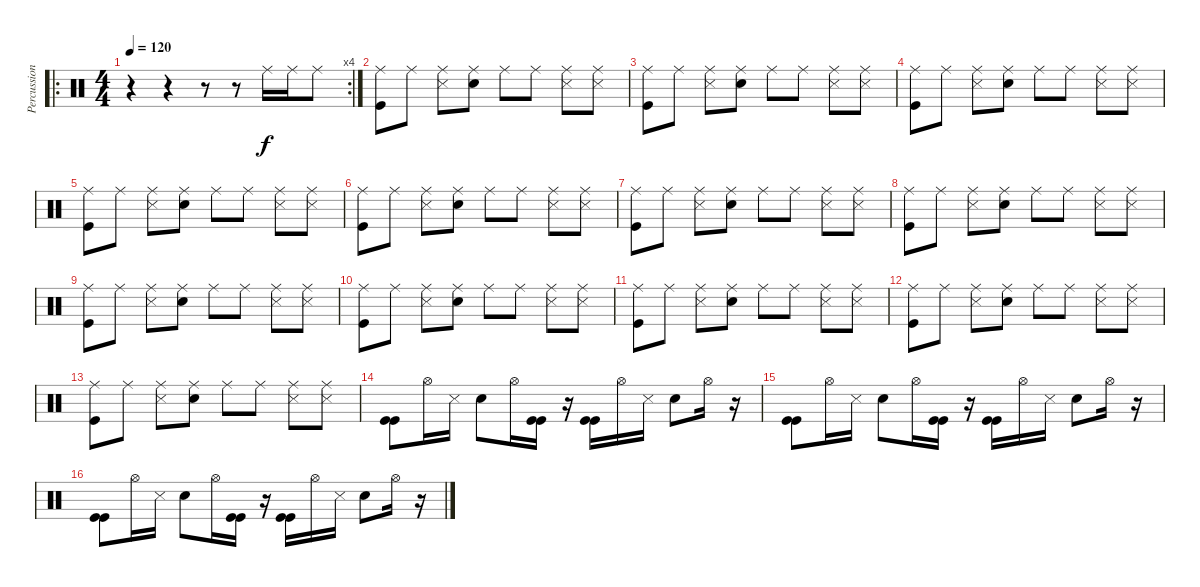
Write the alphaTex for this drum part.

\track ("Percussions" "Percussion") {instrument percussion}
\staff {score}
\articulation defaults
\ro
\rc 4
\ts (4 4)
\tempo 120
\clef neutral
\ks c
r.4{dy f} r.4 r.8 r.8 "Ride (middle)".16 "Ride (middle)".16 "Ride (middle)".8 |
("Ride (middle)" "Kick (hit)").8 "Ride (middle)".8 ("Ride (middle)" "Snare (side stick) 3").8 ("Ride (middle)" "Electric Snare (hit)").8 "Ride (middle)".8 "Ride (middle)".8 ("Ride (middle)" "Snare (side stick) 3").8 ("Ride (middle)" "Snare (side stick) 3").8 |
("Ride (middle)" "Kick (hit)").8 "Ride (middle)".8 ("Ride (middle)" "Snare (side stick) 3").8 ("Ride (middle)" "Electric Snare (hit)").8 "Ride (middle)".8 "Ride (middle)".8 ("Ride (middle)" "Snare (side stick) 3").8 ("Ride (middle)" "Snare (side stick) 3").8 |
("Ride (middle)" "Kick (hit)").8 "Ride (middle)".8 ("Ride (middle)" "Snare (side stick) 3").8 ("Ride (middle)" "Electric Snare (hit)").8 "Ride (middle)".8 "Ride (middle)".8 ("Ride (middle)" "Snare (side stick) 3").8 ("Ride (middle)" "Snare (side stick) 3").8 |
("Ride (middle)" "Kick (hit)").8 "Ride (middle)".8 ("Ride (middle)" "Snare (side stick) 3").8 ("Ride (middle)" "Electric Snare (hit)").8 "Ride (middle)".8 "Ride (middle)".8 ("Ride (middle)" "Snare (side stick) 3").8 ("Ride (middle)" "Snare (side stick) 3").8 |
("Ride (middle)" "Kick (hit)").8 "Ride (middle)".8 ("Ride (middle)" "Snare (side stick) 3").8 ("Ride (middle)" "Electric Snare (hit)").8 "Ride (middle)".8 "Ride (middle)".8 ("Ride (middle)" "Snare (side stick) 3").8 ("Ride (middle)" "Snare (side stick) 3").8 |
("Ride (middle)" "Kick (hit)").8 "Ride (middle)".8 ("Ride (middle)" "Snare (side stick) 3").8 ("Ride (middle)" "Electric Snare (hit)").8 "Ride (middle)".8 "Ride (middle)".8 ("Ride (middle)" "Snare (side stick) 3").8 ("Ride (middle)" "Snare (side stick) 3").8 |
("Ride (middle)" "Kick (hit)").8 "Ride (middle)".8 ("Ride (middle)" "Snare (side stick) 3").8 ("Ride (middle)" "Electric Snare (hit)").8 "Ride (middle)".8 "Ride (middle)".8 ("Ride (middle)" "Snare (side stick) 3").8 ("Ride (middle)" "Snare (side stick) 3").8 |
("Ride (middle)" "Kick (hit)").8 "Ride (middle)".8 ("Ride (middle)" "Snare (side stick) 3").8 ("Ride (middle)" "Electric Snare (hit)").8 "Ride (middle)".8 "Ride (middle)".8 ("Ride (middle)" "Snare (side stick) 3").8 ("Ride (middle)" "Snare (side stick) 3").8 |
("Ride (middle)" "Kick (hit)").8 "Ride (middle)".8 ("Ride (middle)" "Snare (side stick) 3").8 ("Ride (middle)" "Electric Snare (hit)").8 "Ride (middle)".8 "Ride (middle)".8 ("Ride (middle)" "Snare (side stick) 3").8 ("Ride (middle)" "Snare (side stick) 3").8 |
("Ride (middle)" "Kick (hit)").8 "Ride (middle)".8 ("Ride (middle)" "Snare (side stick) 3").8 ("Ride (middle)" "Electric Snare (hit)").8 "Ride (middle)".8 "Ride (middle)".8 ("Ride (middle)" "Snare (side stick) 3").8 ("Ride (middle)" "Snare (side stick) 3").8 |
("Ride (middle)" "Kick (hit)").8 "Ride (middle)".8 ("Ride (middle)" "Snare (side stick) 3").8 ("Ride (middle)" "Electric Snare (hit)").8 "Ride (middle)".8 "Ride (middle)".8 ("Ride (middle)" "Snare (side stick) 3").8 ("Ride (middle)" "Snare (side stick) 3").8 |
("Ride (middle)" "Kick (hit)").8 "Ride (middle)".8 ("Ride (middle)" "Snare (side stick) 3").8 ("Ride (middle)" "Electric Snare (hit)").8 "Ride (middle)".8 "Ride (middle)".8 ("Ride (middle)" "Snare (side stick) 3").8 ("Ride (middle)" "Snare (side stick) 3").8 |
("Kick (hit)" "Kick (hit)").8 "Hi-Hat (open)".16 "Snare (side stick) 3".16 "Electric Snare (hit)".8 "Hi-Hat (open)".16 ("Kick (hit)" "Kick (hit)").16 r.16 ("Kick (hit)" "Kick (hit)").16 "Hi-Hat (open)".16 "Snare (side stick) 3".16 "Electric Snare (hit)".8 "Hi-Hat (open)".16 r.16 |
("Kick (hit)" "Kick (hit)").8 "Hi-Hat (open)".16 "Snare (side stick) 3".16 "Electric Snare (hit)".8 "Hi-Hat (open)".16 ("Kick (hit)" "Kick (hit)").16 r.16 ("Kick (hit)" "Kick (hit)").16 "Hi-Hat (open)".16 "Snare (side stick) 3".16 "Electric Snare (hit)".8 "Hi-Hat (open)".16 r.16 |
("Kick (hit)" "Kick (hit)").8 "Hi-Hat (open)".16 "Snare (side stick) 3".16 "Electric Snare (hit)".8 "Hi-Hat (open)".16 ("Kick (hit)" "Kick (hit)").16 r.16 ("Kick (hit)" "Kick (hit)").16 "Hi-Hat (open)".16 "Snare (side stick) 3".16 "Electric Snare (hit)".8 "Hi-Hat (open)".16 r.16
